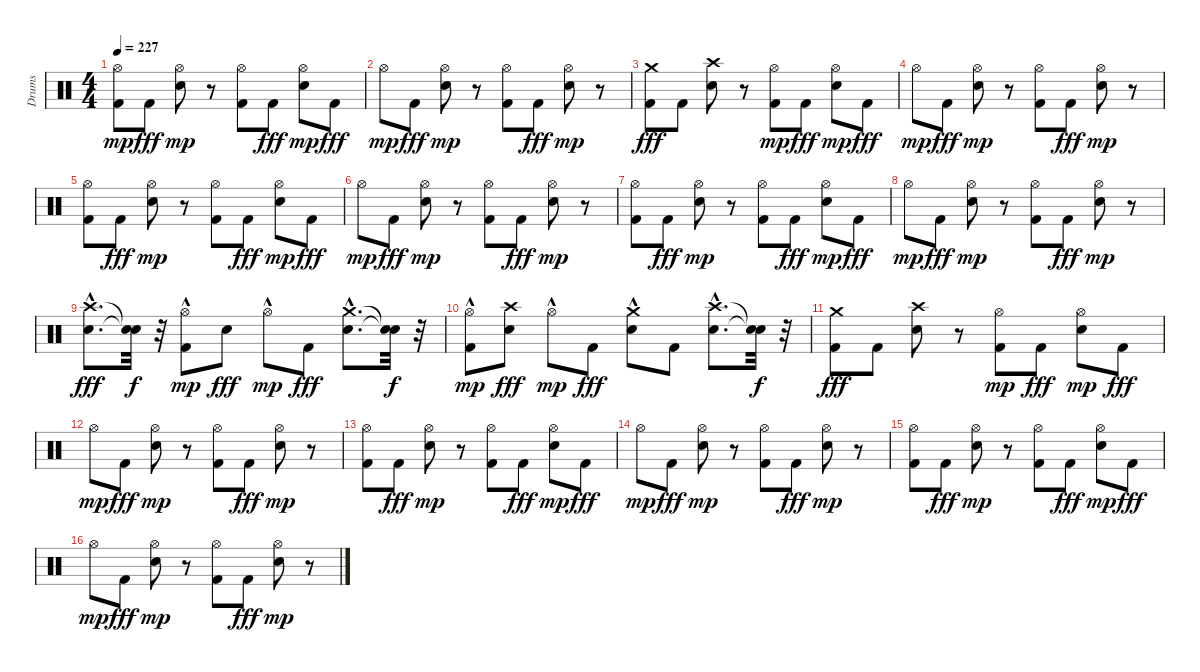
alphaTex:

\track ("Drums" "Drums") {instrument percussion}
\staff {score}
\articulation defaults
\ts (4 4)
\tempo 227
\clef neutral
\ks c
("Kick (hit) 2" "Hi-Hat (open)").8{dy mp} "Kick (hit) 2".8{dy fff} ("Snare (hit) 2" "Hi-Hat (open)").8{dy mp} r.8 ("Kick (hit) 2" "Hi-Hat (open)").8 "Kick (hit) 2".8{dy fff} ("Snare (hit) 2" "Hi-Hat (open)").8{dy mp} "Kick (hit) 2".8{dy fff} |
"Hi-Hat (open)".8{dy mp} "Kick (hit) 2".8{dy fff} ("Snare (hit) 2" "Hi-Hat (open)").8{dy mp} r.8 ("Kick (hit) 2" "Hi-Hat (open)").8 "Kick (hit) 2".8{dy fff} ("Snare (hit) 2" "Hi-Hat (open)").8{dy mp} r.8 |
("Kick (hit) 2" "Crash medium (hit)").8{dy fff} "Kick (hit) 2".8 ("Snare (hit) 2" "Crash high (hit)").8 r.8 ("Kick (hit) 2" "Hi-Hat (open)").8{dy mp} "Kick (hit) 2".8{dy fff} ("Snare (hit) 2" "Hi-Hat (open)").8{dy mp} "Kick (hit) 2".8{dy fff} |
"Hi-Hat (open)".8{dy mp} "Kick (hit) 2".8{dy fff} ("Snare (hit) 2" "Hi-Hat (open)").8{dy mp} r.8 ("Kick (hit) 2" "Hi-Hat (open)").8 "Kick (hit) 2".8{dy fff} ("Snare (hit) 2" "Hi-Hat (open)").8{dy mp} r.8 |
("Kick (hit) 2" "Hi-Hat (open)").8 "Kick (hit) 2".8{dy fff} ("Snare (hit) 2" "Hi-Hat (open)").8{dy mp} r.8 ("Kick (hit) 2" "Hi-Hat (open)").8 "Kick (hit) 2".8{dy fff} ("Snare (hit) 2" "Hi-Hat (open)").8{dy mp} "Kick (hit) 2".8{dy fff} |
"Hi-Hat (open)".8{dy mp} "Kick (hit) 2".8{dy fff} ("Snare (hit) 2" "Hi-Hat (open)").8{dy mp} r.8 ("Kick (hit) 2" "Hi-Hat (open)").8 "Kick (hit) 2".8{dy fff} ("Snare (hit) 2" "Hi-Hat (open)").8{dy mp} r.8 |
("Kick (hit) 2" "Hi-Hat (open)").8 "Kick (hit) 2".8{dy fff} ("Snare (hit) 2" "Hi-Hat (open)").8{dy mp} r.8 ("Kick (hit) 2" "Hi-Hat (open)").8 "Kick (hit) 2".8{dy fff} ("Snare (hit) 2" "Hi-Hat (open)").8{dy mp} "Kick (hit) 2".8{dy fff} |
"Hi-Hat (open)".8{dy mp} "Kick (hit) 2".8{dy fff} ("Snare (hit) 2" "Hi-Hat (open)").8{dy mp} r.8 ("Kick (hit) 2" "Hi-Hat (open)").8 "Kick (hit) 2".8{dy fff} ("Snare (hit) 2" "Hi-Hat (open)").8{dy mp} r.8 |
("Snare (hit) 2"{hac} "Crash high (hit)"{hac}).8{d dy fff} ("Snare (hit)"{t} "Snare (hit)"{t}).32{dy f} r.32 ("Kick (hit) 2"{hac} "Hi-Hat (open)").8{dy mp} "Snare (hit) 2".8{dy fff} "Hi-Hat (open)"{hac}.8{dy mp} "Kick (hit) 2".8{dy fff} ("Snare (hit) 2"{hac} "Crash medium (hit)"{hac}).8{d} ("Snare (hit)"{t} "Snare (hit)"{t}).32{dy f} r.32 |
("Kick (hit) 2"{hac} "Hi-Hat (open)").8{dy mp} ("Snare (hit) 2" "Crash high (hit)").8{dy fff} "Hi-Hat (open)"{hac}.8{dy mp} "Kick (hit) 2".8{dy fff} ("Snare (hit) 2"{hac} "Crash medium (hit)"{hac}).8 "Kick (hit) 2".8 ("Snare (hit) 2"{hac} "Crash high (hit)"{hac}).8{d} ("Snare (hit)"{t} "Snare (hit)"{t}).32{dy f} r.32 |
("Kick (hit) 2" "Crash medium (hit)").8{dy fff} "Kick (hit) 2".8 ("Snare (hit) 2" "Crash high (hit)").8 r.8 ("Kick (hit) 2" "Hi-Hat (open)").8{dy mp} "Kick (hit) 2".8{dy fff} ("Snare (hit) 2" "Hi-Hat (open)").8{dy mp} "Kick (hit) 2".8{dy fff} |
"Hi-Hat (open)".8{dy mp} "Kick (hit) 2".8{dy fff} ("Snare (hit) 2" "Hi-Hat (open)").8{dy mp} r.8 ("Kick (hit) 2" "Hi-Hat (open)").8 "Kick (hit) 2".8{dy fff} ("Snare (hit) 2" "Hi-Hat (open)").8{dy mp} r.8 |
("Kick (hit) 2" "Hi-Hat (open)").8 "Kick (hit) 2".8{dy fff} ("Snare (hit) 2" "Hi-Hat (open)").8{dy mp} r.8 ("Kick (hit) 2" "Hi-Hat (open)").8 "Kick (hit) 2".8{dy fff} ("Snare (hit) 2" "Hi-Hat (open)").8{dy mp} "Kick (hit) 2".8{dy fff} |
"Hi-Hat (open)".8{dy mp} "Kick (hit) 2".8{dy fff} ("Snare (hit) 2" "Hi-Hat (open)").8{dy mp} r.8 ("Kick (hit) 2" "Hi-Hat (open)").8 "Kick (hit) 2".8{dy fff} ("Snare (hit) 2" "Hi-Hat (open)").8{dy mp} r.8 |
("Kick (hit) 2" "Hi-Hat (open)").8 "Kick (hit) 2".8{dy fff} ("Snare (hit) 2" "Hi-Hat (open)").8{dy mp} r.8 ("Kick (hit) 2" "Hi-Hat (open)").8 "Kick (hit) 2".8{dy fff} ("Snare (hit) 2" "Hi-Hat (open)").8{dy mp} "Kick (hit) 2".8{dy fff} |
"Hi-Hat (open)".8{dy mp} "Kick (hit) 2".8{dy fff} ("Snare (hit) 2" "Hi-Hat (open)").8{dy mp} r.8 ("Kick (hit) 2" "Hi-Hat (open)").8 "Kick (hit) 2".8{dy fff} ("Snare (hit) 2" "Hi-Hat (open)").8{dy mp} r.8
